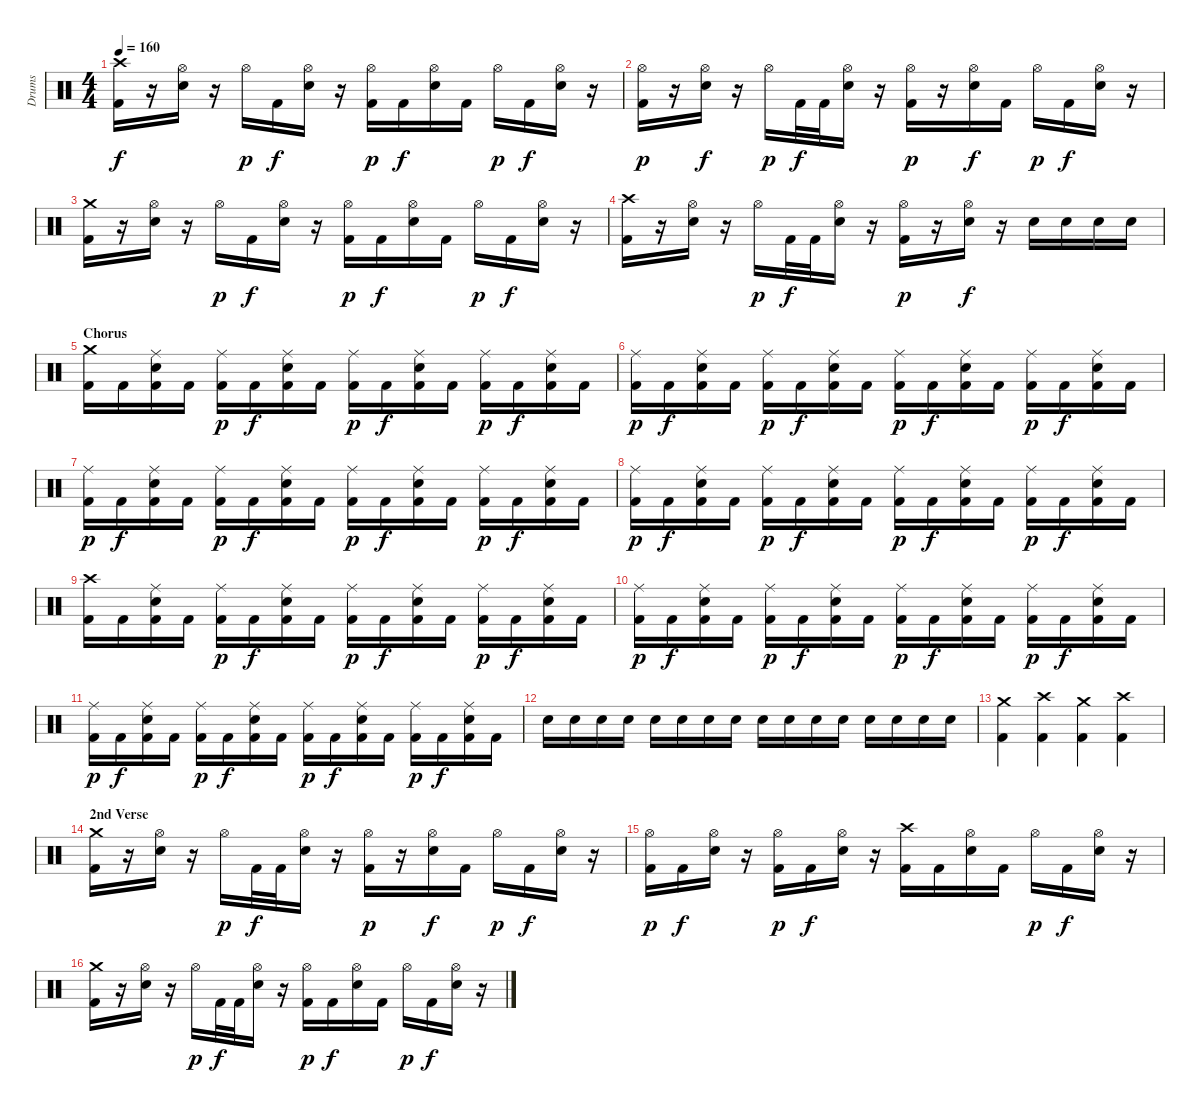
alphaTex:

\track ("Drums" "Drums") {instrument percussion}
\staff {score}
\articulation defaults
\ts (4 4)
\tempo 160
\clef neutral
\ks c
("Crash high (hit)" "Kick (hit) 2").16{dy f} r.16 ("Hi-Hat (open)" "Snare (hit) 2").16 r.16 "Hi-Hat (open)".16{dy p} "Kick (hit) 2".16{dy f} ("Hi-Hat (open)" "Snare (hit) 2").16 r.16 ("Hi-Hat (open)" "Kick (hit) 2").16{dy p} "Kick (hit) 2".16{dy f} ("Hi-Hat (open)" "Snare (hit) 2").16 "Kick (hit) 2".16 "Hi-Hat (open)".16{dy p} "Kick (hit) 2".16{dy f} ("Hi-Hat (open)" "Snare (hit) 2").16 r.16 |
("Hi-Hat (open)" "Kick (hit) 2").16{dy p} r.16 ("Hi-Hat (open)" "Snare (hit) 2").16{dy f} r.16 "Hi-Hat (open)".16{dy p} "Kick (hit) 2".32{dy f} "Kick (hit) 2".32 ("Hi-Hat (open)" "Snare (hit) 2").16 r.16 ("Hi-Hat (open)" "Kick (hit) 2").16{dy p} r.16 ("Hi-Hat (open)" "Snare (hit) 2").16{dy f} "Kick (hit) 2".16 "Hi-Hat (open)".16{dy p} "Kick (hit) 2".16{dy f} ("Hi-Hat (open)" "Snare (hit) 2").16 r.16 |
("Crash medium (hit)" "Kick (hit) 2").16 r.16 ("Hi-Hat (open)" "Snare (hit) 2").16 r.16 "Hi-Hat (open)".16{dy p} "Kick (hit) 2".16{dy f} ("Hi-Hat (open)" "Snare (hit) 2").16 r.16 ("Hi-Hat (open)" "Kick (hit) 2").16{dy p} "Kick (hit) 2".16{dy f} ("Hi-Hat (open)" "Snare (hit) 2").16 "Kick (hit) 2".16 "Hi-Hat (open)".16{dy p} "Kick (hit) 2".16{dy f} ("Hi-Hat (open)" "Snare (hit) 2").16 r.16 |
("Crash high (hit)" "Kick (hit) 2").16 r.16 ("Hi-Hat (open)" "Snare (hit) 2").16 r.16 "Hi-Hat (open)".16{dy p} "Kick (hit) 2".32{dy f} "Kick (hit) 2".32 ("Hi-Hat (open)" "Snare (hit) 2").16 r.16 ("Hi-Hat (open)" "Kick (hit) 2").16{dy p} r.16 ("Hi-Hat (open)" "Snare (hit) 2").16{dy f} r.16 "Snare (hit) 2".16 "Snare (hit) 2".16 "Snare (hit) 2".16 "Snare (hit) 2".16 |
\section ("" "Chorus")
("Crash medium (hit)" "Kick (hit) 2").16 "Kick (hit) 2".16 ("Ride (middle)" "Snare (hit) 2" "Kick (hit) 2").16 "Kick (hit) 2".16 ("Ride (middle)" "Kick (hit) 2").16{dy p} "Kick (hit) 2".16{dy f} ("Ride (middle)" "Snare (hit) 2" "Kick (hit) 2").16 "Kick (hit) 2".16 ("Ride (middle)" "Kick (hit) 2").16{dy p} "Kick (hit) 2".16{dy f} ("Ride (middle)" "Snare (hit) 2" "Kick (hit) 2").16 "Kick (hit) 2".16 ("Ride (middle)" "Kick (hit) 2").16{dy p} "Kick (hit) 2".16{dy f} ("Ride (middle)" "Snare (hit) 2" "Kick (hit) 2").16 "Kick (hit) 2".16 |
("Ride (middle)" "Kick (hit) 2").16{dy p} "Kick (hit) 2".16{dy f} ("Ride (middle)" "Snare (hit) 2" "Kick (hit) 2").16 "Kick (hit) 2".16 ("Ride (middle)" "Kick (hit) 2").16{dy p} "Kick (hit) 2".16{dy f} ("Ride (middle)" "Snare (hit) 2" "Kick (hit) 2").16 "Kick (hit) 2".16 ("Ride (middle)" "Kick (hit) 2").16{dy p} "Kick (hit) 2".16{dy f} ("Ride (middle)" "Snare (hit) 2" "Kick (hit) 2").16 "Kick (hit) 2".16 ("Ride (middle)" "Kick (hit) 2").16{dy p} "Kick (hit) 2".16{dy f} ("Ride (middle)" "Snare (hit) 2" "Kick (hit) 2").16 "Kick (hit) 2".16 |
("Ride (middle)" "Kick (hit) 2").16{dy p} "Kick (hit) 2".16{dy f} ("Ride (middle)" "Snare (hit) 2" "Kick (hit) 2").16 "Kick (hit) 2".16 ("Ride (middle)" "Kick (hit) 2").16{dy p} "Kick (hit) 2".16{dy f} ("Ride (middle)" "Snare (hit) 2" "Kick (hit) 2").16 "Kick (hit) 2".16 ("Ride (middle)" "Kick (hit) 2").16{dy p} "Kick (hit) 2".16{dy f} ("Ride (middle)" "Snare (hit) 2" "Kick (hit) 2").16 "Kick (hit) 2".16 ("Ride (middle)" "Kick (hit) 2").16{dy p} "Kick (hit) 2".16{dy f} ("Ride (middle)" "Snare (hit) 2" "Kick (hit) 2").16 "Kick (hit) 2".16 |
("Ride (middle)" "Kick (hit) 2").16{dy p} "Kick (hit) 2".16{dy f} ("Ride (middle)" "Snare (hit) 2" "Kick (hit) 2").16 "Kick (hit) 2".16 ("Ride (middle)" "Kick (hit) 2").16{dy p} "Kick (hit) 2".16{dy f} ("Ride (middle)" "Snare (hit) 2" "Kick (hit) 2").16 "Kick (hit) 2".16 ("Ride (middle)" "Kick (hit) 2").16{dy p} "Kick (hit) 2".16{dy f} ("Ride (middle)" "Snare (hit) 2" "Kick (hit) 2").16 "Kick (hit) 2".16 ("Ride (middle)" "Kick (hit) 2").16{dy p} "Kick (hit) 2".16{dy f} ("Ride (middle)" "Snare (hit) 2" "Kick (hit) 2").16 "Kick (hit) 2".16 |
("Crash high (hit)" "Kick (hit) 2").16 "Kick (hit) 2".16 ("Ride (middle)" "Snare (hit) 2" "Kick (hit) 2").16 "Kick (hit) 2".16 ("Ride (middle)" "Kick (hit) 2").16{dy p} "Kick (hit) 2".16{dy f} ("Ride (middle)" "Snare (hit) 2" "Kick (hit) 2").16 "Kick (hit) 2".16 ("Ride (middle)" "Kick (hit) 2").16{dy p} "Kick (hit) 2".16{dy f} ("Ride (middle)" "Snare (hit) 2" "Kick (hit) 2").16 "Kick (hit) 2".16 ("Ride (middle)" "Kick (hit) 2").16{dy p} "Kick (hit) 2".16{dy f} ("Ride (middle)" "Snare (hit) 2" "Kick (hit) 2").16 "Kick (hit) 2".16 |
("Ride (middle)" "Kick (hit) 2").16{dy p} "Kick (hit) 2".16{dy f} ("Ride (middle)" "Snare (hit) 2" "Kick (hit) 2").16 "Kick (hit) 2".16 ("Ride (middle)" "Kick (hit) 2").16{dy p} "Kick (hit) 2".16{dy f} ("Ride (middle)" "Snare (hit) 2" "Kick (hit) 2").16 "Kick (hit) 2".16 ("Ride (middle)" "Kick (hit) 2").16{dy p} "Kick (hit) 2".16{dy f} ("Ride (middle)" "Snare (hit) 2" "Kick (hit) 2").16 "Kick (hit) 2".16 ("Ride (middle)" "Kick (hit) 2").16{dy p} "Kick (hit) 2".16{dy f} ("Ride (middle)" "Snare (hit) 2" "Kick (hit) 2").16 "Kick (hit) 2".16 |
("Ride (middle)" "Kick (hit) 2").16{dy p} "Kick (hit) 2".16{dy f} ("Ride (middle)" "Snare (hit) 2" "Kick (hit) 2").16 "Kick (hit) 2".16 ("Ride (middle)" "Kick (hit) 2").16{dy p} "Kick (hit) 2".16{dy f} ("Ride (middle)" "Snare (hit) 2" "Kick (hit) 2").16 "Kick (hit) 2".16 ("Ride (middle)" "Kick (hit) 2").16{dy p} "Kick (hit) 2".16{dy f} ("Ride (middle)" "Snare (hit) 2" "Kick (hit) 2").16 "Kick (hit) 2".16 ("Ride (middle)" "Kick (hit) 2").16{dy p} "Kick (hit) 2".16{dy f} ("Ride (middle)" "Snare (hit) 2" "Kick (hit) 2").16 "Kick (hit) 2".16 |
"Snare (hit) 2".16 "Snare (hit) 2".16 "Snare (hit) 2".16 "Snare (hit) 2".16 "Snare (hit) 2".16 "Snare (hit) 2".16 "Snare (hit) 2".16 "Snare (hit) 2".16 "Snare (hit) 2".16 "Snare (hit) 2".16 "Snare (hit) 2".16 "Snare (hit) 2".16 "Snare (hit) 2".16 "Snare (hit) 2".16 "Snare (hit) 2".16 "Snare (hit) 2".16 |
("Crash medium (hit)" "Kick (hit) 2").4 ("Crash high (hit)" "Kick (hit) 2").4 ("Crash medium (hit)" "Kick (hit) 2").4 ("Crash high (hit)" "Kick (hit) 2").4 |
\section ("" "2nd Verse")
("Crash medium (hit)" "Kick (hit) 2").16 r.16 ("Hi-Hat (open)" "Snare (hit) 2").16 r.16 "Hi-Hat (open)".16{dy p} "Kick (hit) 2".32{dy f} "Kick (hit) 2".32 ("Hi-Hat (open)" "Snare (hit) 2").16 r.16 ("Hi-Hat (open)" "Kick (hit) 2").16{dy p} r.16 ("Hi-Hat (open)" "Snare (hit) 2").16{dy f} "Kick (hit) 2".16 "Hi-Hat (open)".16{dy p} "Kick (hit) 2".16{dy f} ("Hi-Hat (open)" "Snare (hit) 2").16 r.16 |
("Hi-Hat (open)" "Kick (hit) 2").16{dy p} "Kick (hit) 2".16{dy f} ("Hi-Hat (open)" "Snare (hit) 2").16 r.16 ("Hi-Hat (open)" "Kick (hit) 2").16{dy p} "Kick (hit) 2".16{dy f} ("Hi-Hat (open)" "Snare (hit) 2").16 r.16 ("Crash high (hit)" "Kick (hit) 2").16 "Kick (hit) 2".16 ("Hi-Hat (open)" "Snare (hit) 2").16 "Kick (hit) 2".16 "Hi-Hat (open)".16{dy p} "Kick (hit) 2".16{dy f} ("Hi-Hat (open)" "Snare (hit) 2").16 r.16 |
("Crash medium (hit)" "Kick (hit) 2").16 r.16 ("Hi-Hat (open)" "Snare (hit) 2").16 r.16 "Hi-Hat (open)".16{dy p} "Kick (hit) 2".32{dy f} "Kick (hit) 2".32 ("Hi-Hat (open)" "Snare (hit) 2").16 r.16 ("Hi-Hat (open)" "Kick (hit) 2").16{dy p} "Kick (hit) 2".16{dy f} ("Hi-Hat (open)" "Snare (hit) 2").16 "Kick (hit) 2".16 "Hi-Hat (open)".16{dy p} "Kick (hit) 2".16{dy f} ("Hi-Hat (open)" "Snare (hit) 2").16 r.16
